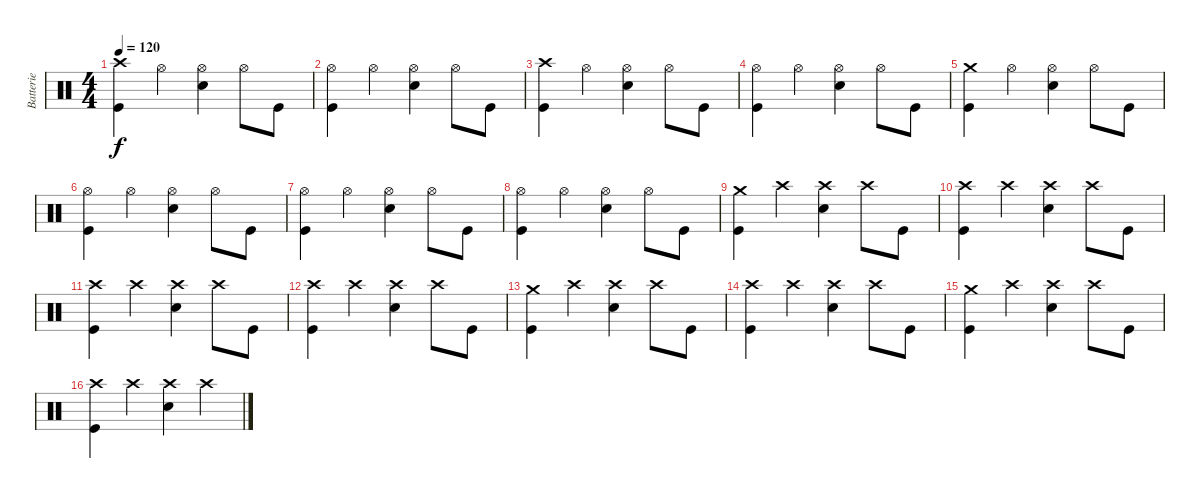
\track ("Batterie" "Batterie") {instrument percussion}
\staff {score}
\articulation defaults
\ts (4 4)
\tempo 120
\clef neutral
\ks c
("Crash high (hit)" "Kick (hit)").4{dy f} "Hi-Hat (open)".4 ("Hi-Hat (open)" "Electric Snare (hit)").4 "Hi-Hat (open)".8 "Kick (hit)".8 |
("Hi-Hat (open)" "Kick (hit)").4 "Hi-Hat (open)".4 ("Hi-Hat (open)" "Electric Snare (hit)").4 "Hi-Hat (open)".8 "Kick (hit)".8 |
("Crash high (hit)" "Kick (hit)").4 "Hi-Hat (open)".4 ("Hi-Hat (open)" "Electric Snare (hit)").4 "Hi-Hat (open)".8 "Kick (hit)".8 |
("Hi-Hat (open)" "Kick (hit)").4 "Hi-Hat (open)".4 ("Hi-Hat (open)" "Electric Snare (hit)").4 "Hi-Hat (open)".8 "Kick (hit)".8 |
("Crash medium (hit)" "Kick (hit)").4 "Hi-Hat (open)".4 ("Hi-Hat (open)" "Electric Snare (hit)").4 "Hi-Hat (open)".8 "Kick (hit)".8 |
("Hi-Hat (open)" "Kick (hit)").4 "Hi-Hat (open)".4 ("Hi-Hat (open)" "Electric Snare (hit)").4 "Hi-Hat (open)".8 "Kick (hit)".8 |
("Hi-Hat (open)" "Kick (hit)").4 "Hi-Hat (open)".4 ("Hi-Hat (open)" "Electric Snare (hit)").4 "Hi-Hat (open)".8 "Kick (hit)".8 |
("Hi-Hat (open)" "Kick (hit)").4 "Hi-Hat (open)".4 ("Hi-Hat (open)" "Electric Snare (hit)").4 "Hi-Hat (open)".8 "Kick (hit)".8 |
("Crash medium (hit)" "Kick (hit)").4 "Crash high (hit)".4 ("Crash high (hit)" "Electric Snare (hit)").4 "Crash high (hit)".8 "Kick (hit)".8 |
("Crash high (hit)" "Kick (hit)").4 "Crash high (hit)".4 ("Crash high (hit)" "Electric Snare (hit)").4 "Crash high (hit)".8 "Kick (hit)".8 |
("Crash high (hit)" "Kick (hit)").4 "Crash high (hit)".4 ("Crash high (hit)" "Electric Snare (hit)").4 "Crash high (hit)".8 "Kick (hit)".8 |
("Crash high (hit)" "Kick (hit)").4 "Crash high (hit)".4 ("Crash high (hit)" "Electric Snare (hit)").4 "Crash high (hit)".8 "Kick (hit)".8 |
("Crash medium (hit)" "Kick (hit)").4 "Crash high (hit)".4 ("Crash high (hit)" "Electric Snare (hit)").4 "Crash high (hit)".8 "Kick (hit)".8 |
("Crash high (hit)" "Kick (hit)").4 "Crash high (hit)".4 ("Crash high (hit)" "Electric Snare (hit)").4 "Crash high (hit)".8 "Kick (hit)".8 |
("Crash medium (hit)" "Kick (hit)").4 "Crash high (hit)".4 ("Crash high (hit)" "Electric Snare (hit)").4 "Crash high (hit)".8 "Kick (hit)".8 |
("Crash high (hit)" "Kick (hit)").4 "Crash high (hit)".4 ("Crash high (hit)" "Electric Snare (hit)").4 "Crash high (hit)".4
